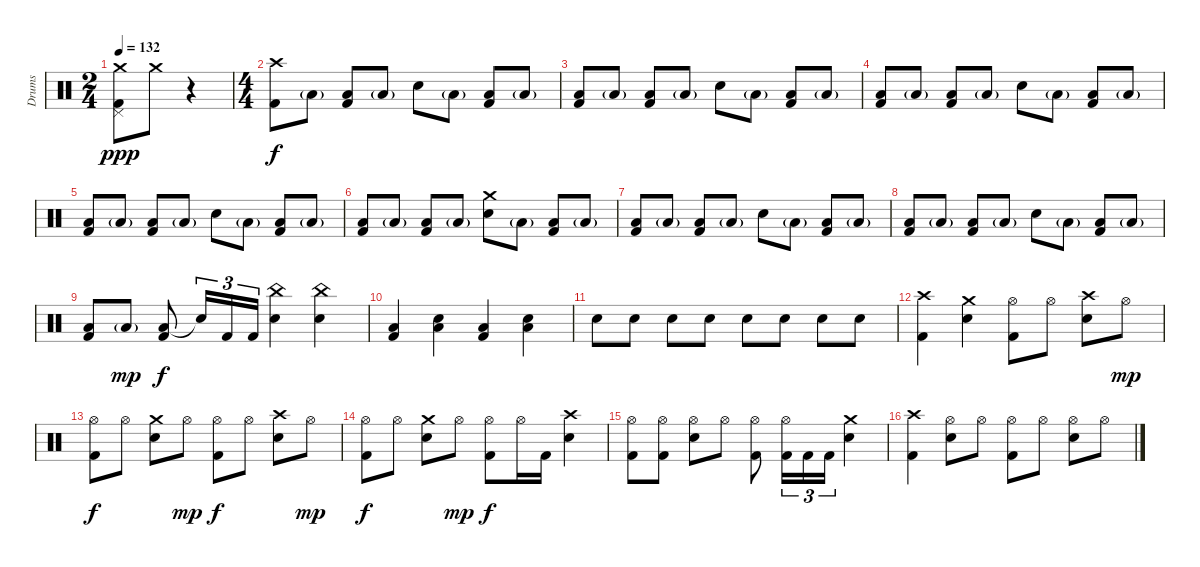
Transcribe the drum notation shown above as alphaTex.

\track ("Drums" "Drums") {instrument percussion}
\staff {score}
\articulation defaults
\ts (2 4)
\tempo 132
\clef neutral
\ks c
("Crash medium (hit)" "Pedal Hi-Hat (hit)" "Kick (hit) 2").8{dy ppp} "Crash medium (hit)".8 r.4 |
\ts (4 4)
("Crash high (hit)" "Kick (hit) 2").8{dy f} "Low Floor Tom (hit)"{g}.8 ("Low Floor Tom (hit)" "Kick (hit) 2").8 "Low Floor Tom (hit)"{g}.8 "Snare (hit) 2".8 "Low Floor Tom (hit)"{g}.8 ("Low Floor Tom (hit)" "Kick (hit) 2").8 "Low Floor Tom (hit)"{g}.8 |
("Low Floor Tom (hit)" "Kick (hit) 2").8 "Low Floor Tom (hit)"{g}.8 ("Low Floor Tom (hit)" "Kick (hit) 2").8 "Low Floor Tom (hit)"{g}.8 "Snare (hit) 2".8 "Low Floor Tom (hit)"{g}.8 ("Low Floor Tom (hit)" "Kick (hit) 2").8 "Low Floor Tom (hit)"{g}.8 |
("Low Floor Tom (hit)" "Kick (hit) 2").8 "Low Floor Tom (hit)"{g}.8 ("Low Floor Tom (hit)" "Kick (hit) 2").8 "Low Floor Tom (hit)"{g}.8 "Snare (hit) 2".8 "Low Floor Tom (hit)"{g}.8 ("Low Floor Tom (hit)" "Kick (hit) 2").8 "Low Floor Tom (hit)"{g}.8 |
("Low Floor Tom (hit)" "Kick (hit) 2").8 "Low Floor Tom (hit)"{g}.8 ("Low Floor Tom (hit)" "Kick (hit) 2").8 "Low Floor Tom (hit)"{g}.8 "Snare (hit) 2".8 "Low Floor Tom (hit)"{g}.8 ("Low Floor Tom (hit)" "Kick (hit) 2").8 "Low Floor Tom (hit)"{g}.8 |
("Low Floor Tom (hit)" "Kick (hit) 2").8 "Low Floor Tom (hit)"{g}.8 ("Low Floor Tom (hit)" "Kick (hit) 2").8 "Low Floor Tom (hit)"{g}.8 ("Crash medium (hit)" "Snare (hit) 2").8 "Low Floor Tom (hit)"{g}.8 ("Low Floor Tom (hit)" "Kick (hit) 2").8 "Low Floor Tom (hit)"{g}.8 |
("Low Floor Tom (hit)" "Kick (hit) 2").8 "Low Floor Tom (hit)"{g}.8 ("Low Floor Tom (hit)" "Kick (hit) 2").8 "Low Floor Tom (hit)"{g}.8 "Snare (hit) 2".8 "Low Floor Tom (hit)"{g}.8 ("Low Floor Tom (hit)" "Kick (hit) 2").8 "Low Floor Tom (hit)"{g}.8 |
("Low Floor Tom (hit)" "Kick (hit) 2").8 "Low Floor Tom (hit)"{g}.8 ("Low Floor Tom (hit)" "Kick (hit) 2").8 "Low Floor Tom (hit)"{g}.8 "Snare (hit) 2".8 "Low Floor Tom (hit)"{g}.8 ("Low Floor Tom (hit)" "Kick (hit) 2").8 "Low Floor Tom (hit)"{g}.8 |
("Low Floor Tom (hit)" "Kick (hit) 2").8 "Low Floor Tom (hit)"{g}.8{dy mp} ("Low Floor Tom (hit)" "Kick (hit) 2").8{dy f} "Snare (hit)"{t}.16{tu (3 2)} "Kick (hit) 2".16{tu (3 2)} "Kick (hit) 2".16{tu (3 2)} ("China (hit)" "Snare (hit) 2").4 ("China (hit)" "Snare (hit) 2").4 |
("Low Floor Tom (hit)" "Kick (hit) 2").4 ("Low Floor Tom (hit)" "Snare (hit) 2").4 ("Low Floor Tom (hit)" "Kick (hit) 2").4 ("Low Floor Tom (hit)" "Snare (hit) 2").4 |
"Snare (hit) 2".8 "Snare (hit) 2".8 "Snare (hit) 2".8 "Snare (hit) 2".8 "Snare (hit) 2".8 "Snare (hit) 2".8 "Snare (hit) 2".8 "Snare (hit) 2".8 |
("Crash high (hit)" "Kick (hit) 2").4 ("Crash medium (hit)" "Snare (hit) 2").4 ("Hi-Hat (open)" "Kick (hit) 2").8 "Hi-Hat (open)".8 ("Crash high (hit)" "Snare (hit) 2").8 "Hi-Hat (open)".8{dy mp} |
("Hi-Hat (open)" "Kick (hit) 2").8{dy f} "Hi-Hat (open)".8 ("Crash medium (hit)" "Snare (hit) 2").8 "Hi-Hat (open)".8{dy mp} ("Hi-Hat (open)" "Kick (hit) 2").8{dy f} "Hi-Hat (open)".8 ("Crash high (hit)" "Snare (hit) 2").8 "Hi-Hat (open)".8{dy mp} |
("Hi-Hat (open)" "Kick (hit) 2").8{dy f} "Hi-Hat (open)".8 ("Crash medium (hit)" "Snare (hit) 2").8 "Hi-Hat (open)".8{dy mp} ("Hi-Hat (open)" "Kick (hit) 2").8{dy f} "Hi-Hat (open)".16 "Kick (hit) 2".16 ("Crash high (hit)" "Snare (hit) 2").4 |
("Hi-Hat (open)" "Kick (hit) 2").8 ("Hi-Hat (open)" "Kick (hit) 2").8 ("Hi-Hat (open)" "Snare (hit) 2").8 "Hi-Hat (open)".8 ("Hi-Hat (open)" "Kick (hit) 2").8 ("Hi-Hat (open)" "Kick (hit) 2").16{tu (3 2)} "Kick (hit) 2".16{tu (3 2)} "Kick (hit) 2".16{tu (3 2)} ("Crash medium (hit)" "Snare (hit) 2").4 |
("Crash high (hit)" "Kick (hit) 2").4 ("Hi-Hat (open)" "Snare (hit) 2").8 "Hi-Hat (open)".8 ("Hi-Hat (open)" "Kick (hit) 2").8 "Hi-Hat (open)".8 ("Hi-Hat (open)" "Snare (hit) 2").8 "Hi-Hat (open)".8
